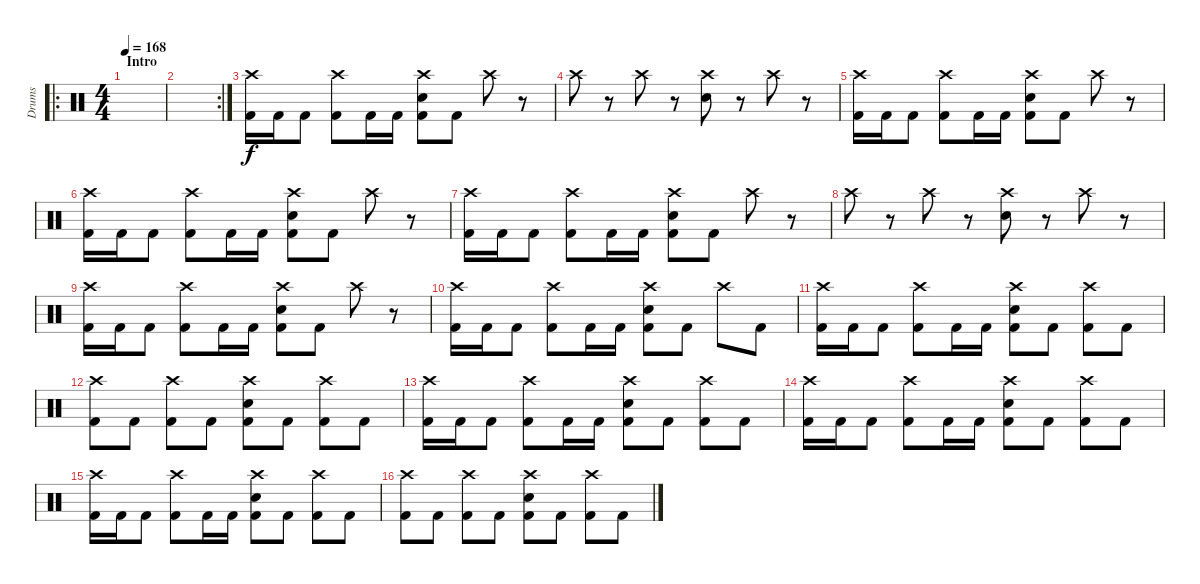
\track ("Drums" "Drums") {instrument percussion}
\staff {score}
\articulation defaults
\ro
\ts (4 4)
\section ("" "Intro")
\tempo 168
\clef neutral
\ks c
|
\rc 2
|
("Crash high (hit)" "Kick (hit) 2").16 "Kick (hit) 2".16 "Kick (hit) 2".8 ("Crash high (hit)" "Kick (hit) 2").8 "Kick (hit) 2".16 "Kick (hit) 2".16 ("Crash high (hit)" "Snare (hit) 2" "Kick (hit) 2").8 "Kick (hit) 2".8 "Crash high (hit)".8 r.8 |
"Crash high (hit)".8 r.8 "Crash high (hit)".8 r.8 ("Crash high (hit)" "Snare (hit) 2").8 r.8 "Crash high (hit)".8 r.8 |
("Crash high (hit)" "Kick (hit) 2").16 "Kick (hit) 2".16 "Kick (hit) 2".8 ("Crash high (hit)" "Kick (hit) 2").8 "Kick (hit) 2".16 "Kick (hit) 2".16 ("Crash high (hit)" "Snare (hit) 2" "Kick (hit) 2").8 "Kick (hit) 2".8 "Crash high (hit)".8 r.8 |
("Crash high (hit)" "Kick (hit) 2").16 "Kick (hit) 2".16 "Kick (hit) 2".8 ("Crash high (hit)" "Kick (hit) 2").8 "Kick (hit) 2".16 "Kick (hit) 2".16 ("Crash high (hit)" "Snare (hit) 2" "Kick (hit) 2").8 "Kick (hit) 2".8 "Crash high (hit)".8 r.8 |
("Crash high (hit)" "Kick (hit) 2").16 "Kick (hit) 2".16 "Kick (hit) 2".8 ("Crash high (hit)" "Kick (hit) 2").8 "Kick (hit) 2".16 "Kick (hit) 2".16 ("Crash high (hit)" "Snare (hit) 2" "Kick (hit) 2").8 "Kick (hit) 2".8 "Crash high (hit)".8 r.8 |
"Crash high (hit)".8 r.8 "Crash high (hit)".8 r.8 ("Crash high (hit)" "Snare (hit) 2").8 r.8 "Crash high (hit)".8 r.8 |
("Crash high (hit)" "Kick (hit) 2").16 "Kick (hit) 2".16 "Kick (hit) 2".8 ("Crash high (hit)" "Kick (hit) 2").8 "Kick (hit) 2".16 "Kick (hit) 2".16 ("Crash high (hit)" "Snare (hit) 2" "Kick (hit) 2").8 "Kick (hit) 2".8 "Crash high (hit)".8 r.8 |
("Crash high (hit)" "Kick (hit) 2").16 "Kick (hit) 2".16 "Kick (hit) 2".8 ("Crash high (hit)" "Kick (hit) 2").8 "Kick (hit) 2".16 "Kick (hit) 2".16 ("Crash high (hit)" "Snare (hit) 2" "Kick (hit) 2").8 "Kick (hit) 2".8 "Crash high (hit)".8 "Kick (hit) 2".8 |
("Crash high (hit)" "Kick (hit) 2").16 "Kick (hit) 2".16 "Kick (hit) 2".8 ("Crash high (hit)" "Kick (hit) 2").8 "Kick (hit) 2".16 "Kick (hit) 2".16 ("Crash high (hit)" "Snare (hit) 2" "Kick (hit) 2").8 "Kick (hit) 2".8 ("Crash high (hit)" "Kick (hit) 2").8 "Kick (hit) 2".8 |
("Crash high (hit)" "Kick (hit) 2").8 "Kick (hit) 2".8 ("Crash high (hit)" "Kick (hit) 2").8 "Kick (hit) 2".8 ("Crash high (hit)" "Snare (hit) 2" "Kick (hit) 2").8 "Kick (hit) 2".8 ("Crash high (hit)" "Kick (hit) 2").8 "Kick (hit) 2".8 |
("Crash high (hit)" "Kick (hit) 2").16 "Kick (hit) 2".16 "Kick (hit) 2".8 ("Crash high (hit)" "Kick (hit) 2").8 "Kick (hit) 2".16 "Kick (hit) 2".16 ("Crash high (hit)" "Snare (hit) 2" "Kick (hit) 2").8 "Kick (hit) 2".8 ("Crash high (hit)" "Kick (hit) 2").8 "Kick (hit) 2".8 |
("Crash high (hit)" "Kick (hit) 2").16 "Kick (hit) 2".16 "Kick (hit) 2".8 ("Crash high (hit)" "Kick (hit) 2").8 "Kick (hit) 2".16 "Kick (hit) 2".16 ("Crash high (hit)" "Snare (hit) 2" "Kick (hit) 2").8 "Kick (hit) 2".8 ("Crash high (hit)" "Kick (hit) 2").8 "Kick (hit) 2".8 |
("Crash high (hit)" "Kick (hit) 2").16 "Kick (hit) 2".16 "Kick (hit) 2".8 ("Crash high (hit)" "Kick (hit) 2").8 "Kick (hit) 2".16 "Kick (hit) 2".16 ("Crash high (hit)" "Snare (hit) 2" "Kick (hit) 2").8 "Kick (hit) 2".8 ("Crash high (hit)" "Kick (hit) 2").8 "Kick (hit) 2".8 |
("Crash high (hit)" "Kick (hit) 2").8 "Kick (hit) 2".8 ("Crash high (hit)" "Kick (hit) 2").8 "Kick (hit) 2".8 ("Crash high (hit)" "Snare (hit) 2" "Kick (hit) 2").8 "Kick (hit) 2".8 ("Crash high (hit)" "Kick (hit) 2").8 "Kick (hit) 2".8
